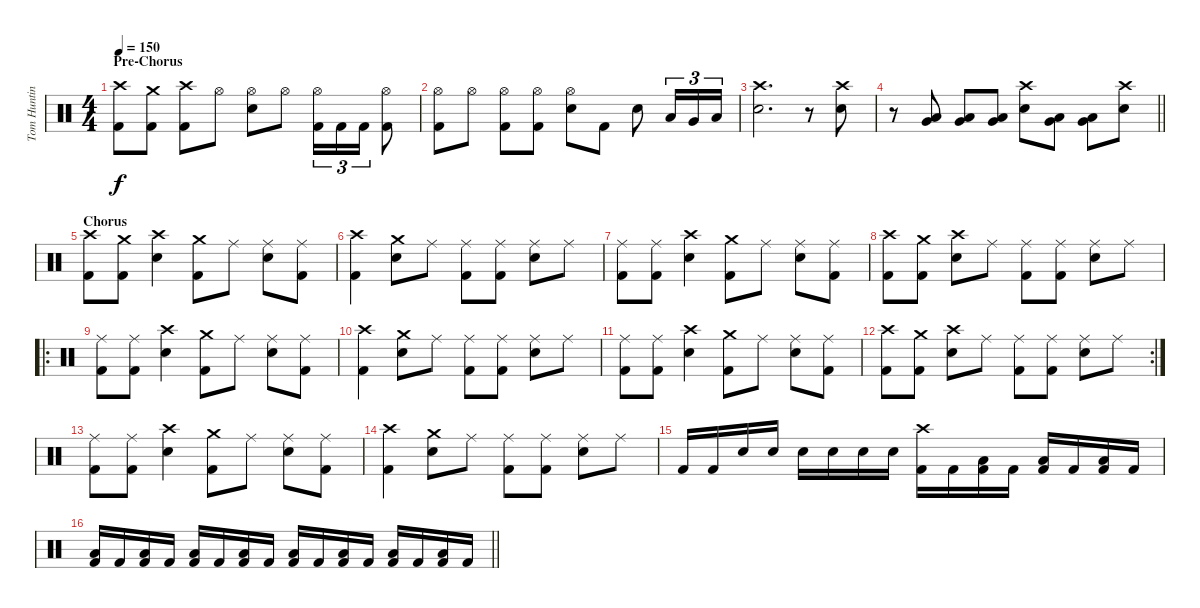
\track ("Tom Hunting" "Tom Huntin") {instrument percussion}
\staff {score}
\articulation defaults
\ts (4 4)
\section ("" "Pre-Chorus")
\tempo 150
\clef neutral
\ks c
("Crash high (hit)" "Kick (hit) 2").8{dy f} ("Crash medium (hit)" "Kick (hit) 2").8 ("Crash high (hit)" "Kick (hit) 2").8 "Hi-Hat (open)".8 ("Hi-Hat (open)" "Snare (hit) 2").8 "Hi-Hat (open)".8 ("Hi-Hat (open)" "Kick (hit) 2").16{tu (3 2)} "Kick (hit) 2".16{tu (3 2)} "Kick (hit) 2".16{tu (3 2)} ("Hi-Hat (open)" "Kick (hit) 2").8 |
("Hi-Hat (open)" "Kick (hit) 2").8 "Hi-Hat (open)".8 ("Hi-Hat (open)" "Kick (hit) 2").8 ("Hi-Hat (open)" "Kick (hit) 2").8 ("Hi-Hat (open)" "Snare (hit) 2").8 "Kick (hit) 2".8 "Snare (hit) 2".8 "Low Tom (hit)".16{tu (3 2)} "Very Low Tom (hit)".16{tu (3 2)} "Low Floor Tom (hit)".16{tu (3 2)} |
("Crash high (hit)" "Snare (hit) 2").2{d} r.8 ("Crash high (hit)" "Snare (hit) 2").8 |
\barLineRight lightlight
r.8 ("Low Tom (hit)" "Very Low Tom (hit)").8 ("Low Tom (hit)" "Very Low Tom (hit)").8 ("Low Tom (hit)" "Very Low Tom (hit)").8 ("Crash high (hit)" "Snare (hit) 2").8 ("Low Tom (hit)" "Very Low Tom (hit)").8 ("Low Tom (hit)" "Very Low Tom (hit)").8 ("Crash high (hit)" "Snare (hit) 2").8 |
\section ("" "Chorus")
("Crash high (hit)" "Kick (hit) 2").8 ("Crash medium (hit)" "Kick (hit) 2").8 ("Crash high (hit)" "Snare (hit) 2").4 ("Crash medium (hit)" "Kick (hit) 2").8 "Ride (middle)".8 ("Ride (middle)" "Snare (hit) 2").8 ("Ride (middle)" "Kick (hit) 2").8 |
("Crash high (hit)" "Kick (hit) 2").4 ("Crash medium (hit)" "Snare (hit) 2").8 "Ride (middle)".8 ("Ride (middle)" "Kick (hit) 2").8 ("Ride (middle)" "Kick (hit) 2").8 ("Ride (middle)" "Snare (hit) 2").8 "Ride (middle)".8 |
("Ride (middle)" "Kick (hit) 2").8 ("Ride (middle)" "Kick (hit) 2").8 ("Crash high (hit)" "Snare (hit) 2").4 ("Crash medium (hit)" "Kick (hit) 2").8 "Ride (middle)".8 ("Ride (middle)" "Snare (hit) 2").8 ("Ride (middle)" "Kick (hit) 2").8 |
("Crash high (hit)" "Kick (hit) 2").8 ("Crash medium (hit)" "Kick (hit) 2").8 ("Crash high (hit)" "Snare (hit) 2").8 "Ride (middle)".8 ("Ride (middle)" "Kick (hit) 2").8 ("Ride (middle)" "Kick (hit) 2").8 ("Ride (middle)" "Snare (hit) 2").8 "Ride (middle)".8 |
\ro
("Ride (middle)" "Kick (hit) 2").8 ("Ride (middle)" "Kick (hit) 2").8 ("Crash high (hit)" "Snare (hit) 2").4 ("Crash medium (hit)" "Kick (hit) 2").8 "Ride (middle)".8 ("Ride (middle)" "Snare (hit) 2").8 ("Ride (middle)" "Kick (hit) 2").8 |
("Crash high (hit)" "Kick (hit) 2").4 ("Crash medium (hit)" "Snare (hit) 2").8 "Ride (middle)".8 ("Ride (middle)" "Kick (hit) 2").8 ("Ride (middle)" "Kick (hit) 2").8 ("Ride (middle)" "Snare (hit) 2").8 "Ride (middle)".8 |
("Ride (middle)" "Kick (hit) 2").8 ("Ride (middle)" "Kick (hit) 2").8 ("Crash high (hit)" "Snare (hit) 2").4 ("Crash medium (hit)" "Kick (hit) 2").8 "Ride (middle)".8 ("Ride (middle)" "Snare (hit) 2").8 ("Ride (middle)" "Kick (hit) 2").8 |
\rc 2
("Crash high (hit)" "Kick (hit) 2").8 ("Crash medium (hit)" "Kick (hit) 2").8 ("Crash high (hit)" "Snare (hit) 2").8 "Ride (middle)".8 ("Ride (middle)" "Kick (hit) 2").8 ("Ride (middle)" "Kick (hit) 2").8 ("Ride (middle)" "Snare (hit) 2").8 "Ride (middle)".8 |
("Ride (middle)" "Kick (hit) 2").8 ("Ride (middle)" "Kick (hit) 2").8 ("Crash high (hit)" "Snare (hit) 2").4 ("Crash medium (hit)" "Kick (hit) 2").8 "Ride (middle)".8 ("Ride (middle)" "Snare (hit) 2").8 ("Ride (middle)" "Kick (hit) 2").8 |
("Crash high (hit)" "Kick (hit) 2").4 ("Crash medium (hit)" "Snare (hit) 2").8 "Ride (middle)".8 ("Ride (middle)" "Kick (hit) 2").8 ("Ride (middle)" "Kick (hit) 2").8 ("Ride (middle)" "Snare (hit) 2").8 "Ride (middle)".8 |
"Kick (hit) 2".16 "Kick (hit) 2".16 "Snare (hit) 2".16 "Snare (hit) 2".16 "Snare (hit) 2".16 "Snare (hit) 2".16 "Snare (hit) 2".16 "Snare (hit) 2".16 ("Crash high (hit)" "Kick (hit) 2").16 "Kick (hit) 2".16 ("Low Floor Tom (hit)" "Kick (hit) 2").16 "Kick (hit) 2".16 ("Low Floor Tom (hit)" "Kick (hit) 2").16 "Kick (hit) 2".16 ("Low Floor Tom (hit)" "Kick (hit) 2").16 "Kick (hit) 2".16 |
\barLineRight lightlight
("Low Floor Tom (hit)" "Kick (hit) 2").16 "Kick (hit) 2".16 ("Low Floor Tom (hit)" "Kick (hit) 2").16 "Kick (hit) 2".16 ("Low Floor Tom (hit)" "Kick (hit) 2").16 "Kick (hit) 2".16 ("Low Floor Tom (hit)" "Kick (hit) 2").16 "Kick (hit) 2".16 ("Low Floor Tom (hit)" "Kick (hit) 2").16 "Kick (hit) 2".16 ("Low Floor Tom (hit)" "Kick (hit) 2").16 "Kick (hit) 2".16 ("Low Floor Tom (hit)" "Kick (hit) 2").16 "Kick (hit) 2".16 ("Low Floor Tom (hit)" "Kick (hit) 2").16 "Kick (hit) 2".16
